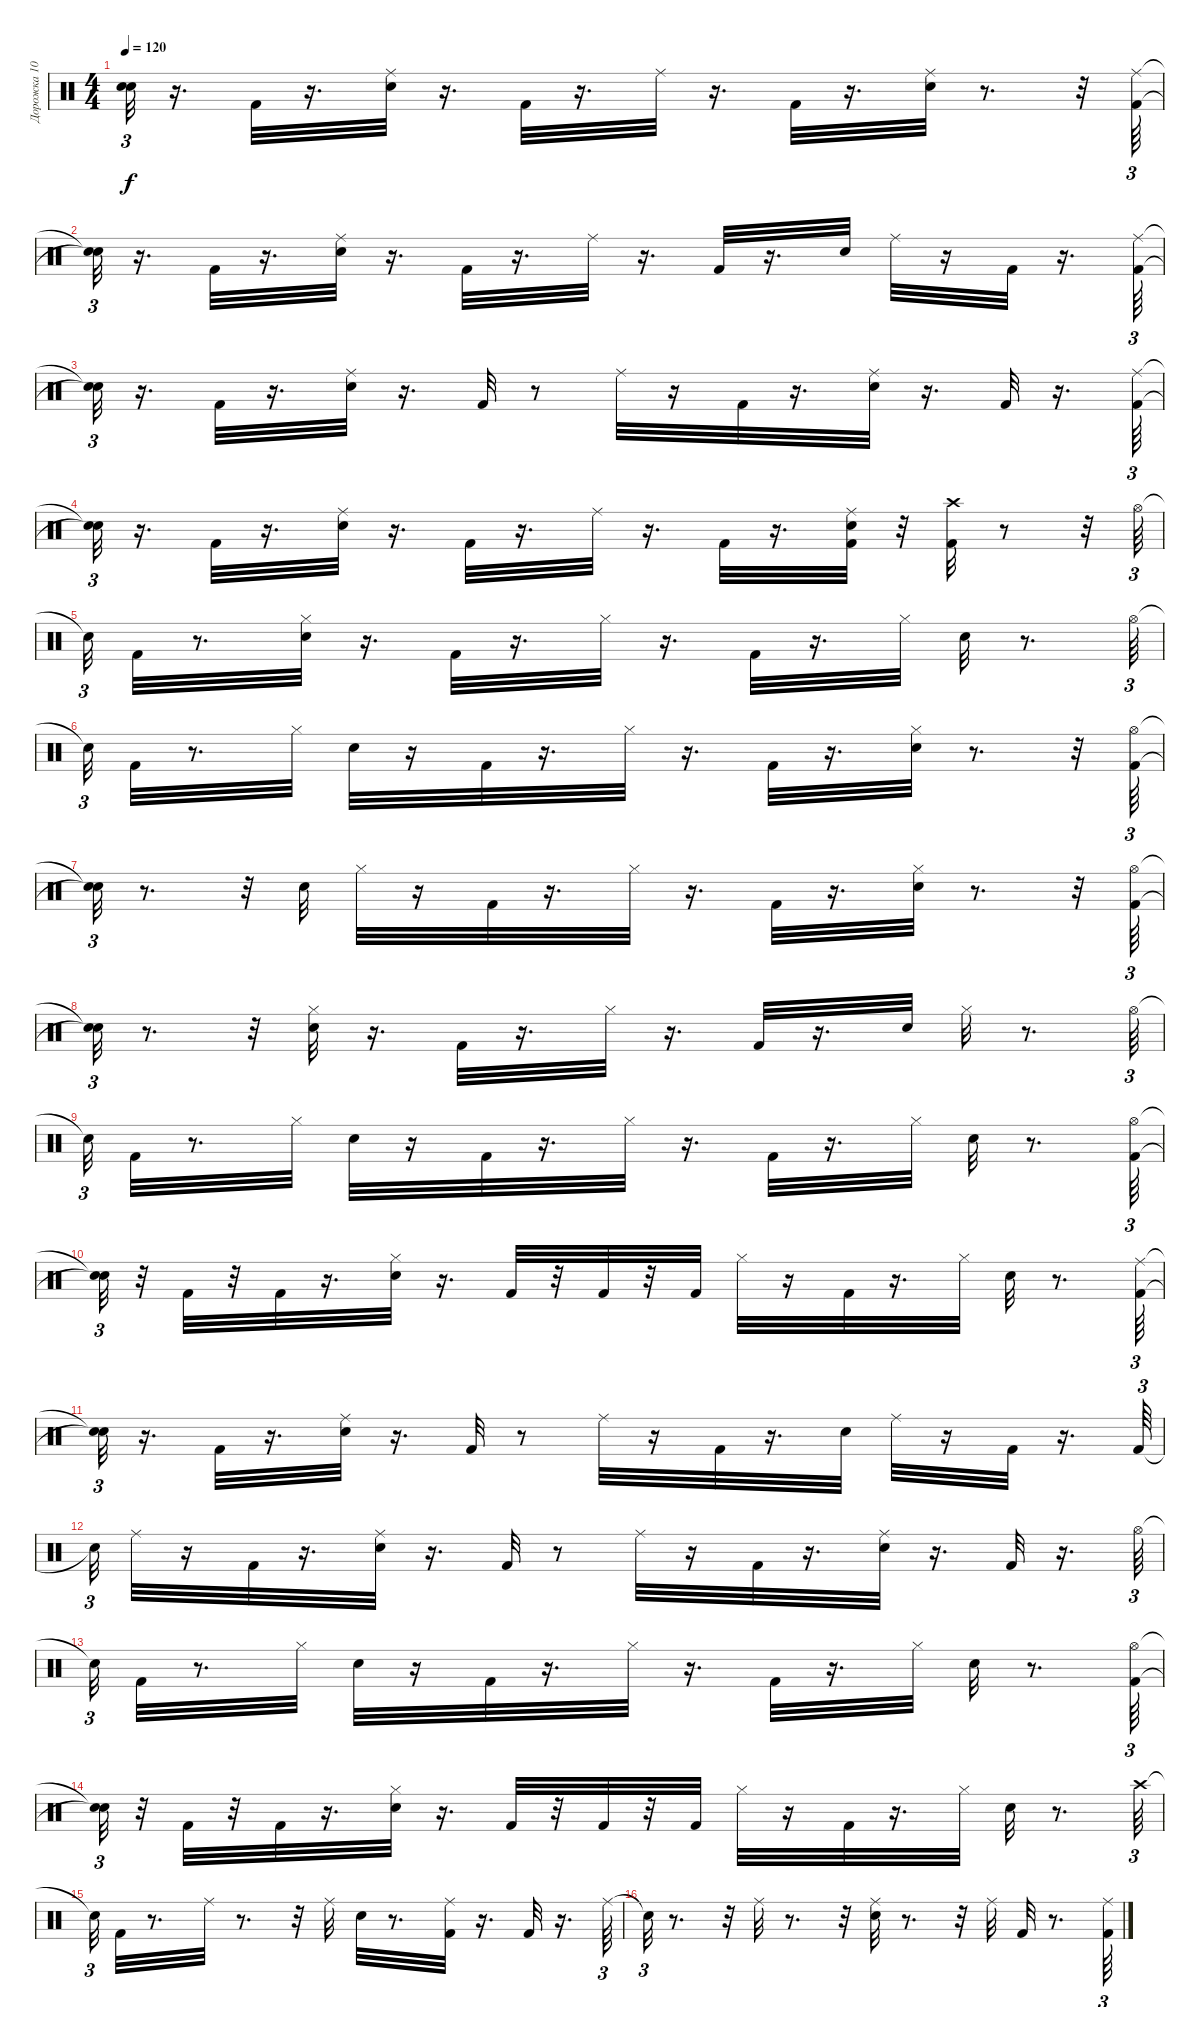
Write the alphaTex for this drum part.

\track ("Дорожка 10" "Дорожка 10") {instrument percussion}
\staff {score}
\articulation defaults
\ts (4 4)
\tempo 120
\clef neutral
\ks c
("Snare (hit)"{t} "Snare (hit)"{t}).32{tu (3 2) dy f} r.16{d} "Kick (hit) 2".32 r.16{d} ("Snare (hit) 2" "Ride (middle)").32 r.16{d} "Kick (hit) 2".32 r.16{d} "Ride (middle)".32 r.16{d} "Kick (hit) 2".32 r.16{d} ("Snare (hit) 2" "Ride (middle)").32 r.8{d} r.32 ("Ride (middle)" "Kick (hit) 2").64{tu (3 2)} |
("Snare (hit)"{t} "Snare (hit)"{t}).32{tu (3 2)} r.16{d} "Kick (hit) 2".32 r.16{d} ("Snare (hit) 2" "Ride (middle)").32 r.16{d} "Kick (hit) 2".32 r.16{d} "Ride (middle)".32 r.16{d} "Kick (hit) 2".32 r.16{d} "Snare (hit) 2".32 "Ride (middle)".32 r.16 "Kick (hit) 2".32 r.16{d} ("Kick (hit) 2" "Ride (middle)").64{tu (3 2)} |
("Snare (hit)"{t} "Snare (hit)"{t}).32{tu (3 2)} r.16{d} "Kick (hit) 2".32 r.16{d} ("Snare (hit) 2" "Ride (middle)").32 r.16{d} "Kick (hit) 2".32 r.8 "Ride (middle)".32 r.16 "Kick (hit) 2".32 r.16{d} ("Ride (middle)" "Snare (hit) 2").32 r.16{d} "Kick (hit) 2".32 r.16{d} ("Kick (hit) 2" "Ride (middle)").64{tu (3 2)} |
("Snare (hit)"{t} "Snare (hit)"{t}).32{tu (3 2)} r.16{d} "Kick (hit) 2".32 r.16{d} ("Ride (middle)" "Snare (hit) 2").32 r.16{d} "Kick (hit) 2".32 r.16{d} "Ride (middle)".32 r.16{d} "Kick (hit) 2".32 r.16{d} ("Kick (hit) 2" "Ride (middle)" "Snare (hit) 2").32 r.32 ("Crash high (hit)" "Kick (hit) 2").32 r.8 r.32 "Hi-Hat (open)".64{tu (3 2)} |
"Snare (hit)"{t}.32{tu (3 2)} "Kick (hit) 2".32 r.8{d} ("Hi-Hat (closed)" "Snare (hit) 2").32 r.16{d} "Kick (hit) 2".32 r.16{d} "Hi-Hat (closed)".32 r.16{d} "Kick (hit) 2".32 r.16{d} "Hi-Hat (closed)".32 "Snare (hit) 2".32 r.8{d} "Hi-Hat (open)".64{tu (3 2)} |
"Snare (hit)"{t}.32{tu (3 2)} "Kick (hit) 2".32 r.8{d} "Hi-Hat (closed)".32 "Snare (hit) 2".32 r.16 "Kick (hit) 2".32 r.16{d} "Hi-Hat (closed)".32 r.16{d} "Kick (hit) 2".32 r.16{d} ("Hi-Hat (closed)" "Snare (hit) 2").32 r.8{d} r.32 ("Kick (hit) 2" "Hi-Hat (open)").64{tu (3 2)} |
("Snare (hit)"{t} "Snare (hit)"{t}).32{tu (3 2)} r.8{d} r.32 "Snare (hit) 2".32 "Hi-Hat (closed)".32 r.16 "Kick (hit) 2".32 r.16{d} "Hi-Hat (closed)".32 r.16{d} "Kick (hit) 2".32 r.16{d} ("Snare (hit) 2" "Hi-Hat (closed)").32 r.8{d} r.32 ("Kick (hit) 2" "Hi-Hat (open)").64{tu (3 2)} |
("Snare (hit)"{t} "Snare (hit)"{t}).32{tu (3 2)} r.8{d} r.32 ("Hi-Hat (closed)" "Snare (hit) 2").32 r.16{d} "Kick (hit) 2".32 r.16{d} "Hi-Hat (closed)".32 r.16{d} "Kick (hit) 2".32 r.16{d} "Snare (hit) 2".32 "Hi-Hat (closed)".32 r.8{d} "Hi-Hat (open)".64{tu (3 2)} |
"Snare (hit)"{t}.32{tu (3 2)} "Kick (hit) 2".32 r.8{d} "Hi-Hat (closed)".32 "Snare (hit) 2".32 r.16 "Kick (hit) 2".32 r.16{d} "Hi-Hat (closed)".32 r.16{d} "Kick (hit) 2".32 r.16{d} "Hi-Hat (closed)".32 "Snare (hit) 2".32 r.8{d} ("Hi-Hat (open)" "Kick (hit) 2").64{tu (3 2)} |
("Snare (hit)"{t} "Snare (hit)"{t}).32{tu (3 2)} r.32 "Kick (hit) 2".32 r.32 "Kick (hit) 2".32 r.16{d} ("Snare (hit) 2" "Hi-Hat (closed)").32 r.16{d} "Kick (hit) 2".32 r.32 "Kick (hit) 2".32 r.32 "Kick (hit) 2".32 "Hi-Hat (closed)".32 r.16 "Kick (hit) 2".32 r.16{d} "Hi-Hat (closed)".32 "Snare (hit) 2".32 r.8{d} ("Ride (middle)" "Kick (hit) 2").64{tu (3 2)} |
("Snare (hit)"{t} "Snare (hit)"{t}).32{tu (3 2)} r.16{d} "Kick (hit) 2".32 r.16{d} ("Snare (hit) 2" "Ride (middle)").32 r.16{d} "Kick (hit) 2".32 r.8 "Ride (middle)".32 r.16 "Kick (hit) 2".32 r.16{d} "Snare (hit) 2".32 "Ride (middle)".32 r.16 "Kick (hit) 2".32 r.16{d} "Kick (hit) 2".64{tu (3 2)} |
"Snare (hit)"{t}.32{tu (3 2)} "Ride (middle)".32 r.16 "Kick (hit) 2".32 r.16{d} ("Snare (hit) 2" "Ride (middle)").32 r.16{d} "Kick (hit) 2".32 r.8 "Ride (middle)".32 r.16 "Kick (hit) 2".32 r.16{d} ("Snare (hit) 2" "Ride (middle)").32 r.16{d} "Kick (hit) 2".32 r.16{d} "Hi-Hat (open)".64{tu (3 2)} |
"Snare (hit)"{t}.32{tu (3 2)} "Kick (hit) 2".32 r.8{d} "Hi-Hat (closed)".32 "Snare (hit) 2".32 r.16 "Kick (hit) 2".32 r.16{d} "Hi-Hat (closed)".32 r.16{d} "Kick (hit) 2".32 r.16{d} "Hi-Hat (closed)".32 "Snare (hit) 2".32 r.8{d} ("Hi-Hat (open)" "Kick (hit) 2").64{tu (3 2)} |
("Snare (hit)"{t} "Snare (hit)"{t}).32{tu (3 2)} r.32 "Kick (hit) 2".32 r.32 "Kick (hit) 2".32 r.16{d} ("Snare (hit) 2" "Hi-Hat (closed)").32 r.16{d} "Kick (hit) 2".32 r.32 "Kick (hit) 2".32 r.32 "Kick (hit) 2".32 "Hi-Hat (closed)".32 r.16 "Kick (hit) 2".32 r.16{d} "Hi-Hat (closed)".32 "Snare (hit) 2".32 r.8{d} "Crash high (hit)".64{tu (3 2)} |
"Snare (hit)"{t}.32{tu (3 2)} "Kick (hit) 2".32 r.8{d} "Ride (middle)".32 r.8{d} r.32 "Ride (middle)".32 "Snare (hit) 2".32 r.8{d} ("Ride (middle)" "Kick (hit) 2").32 r.16{d} "Kick (hit) 2".32 r.16{d} "Ride (middle)".64{tu (3 2)} |
"Snare (hit)"{t}.32{tu (3 2)} r.8{d} r.32 "Ride (middle)".32 r.8{d} r.32 ("Snare (hit) 2" "Ride (middle)").32 r.8{d} r.32 "Ride (middle)".32 "Kick (hit) 2".32 r.8{d} ("Ride (middle)" "Kick (hit) 2").64{tu (3 2)}
